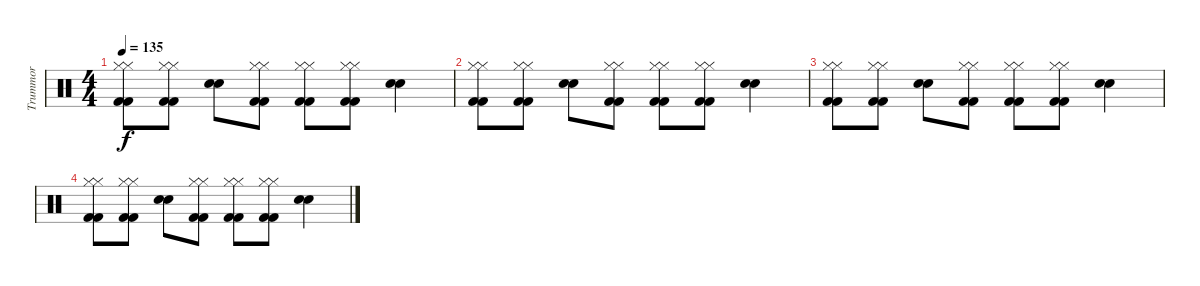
\track ("Trummor" "Trummor") {instrument percussion}
\staff {score}
\articulation defaults
\ts (4 4)
\tempo 135
\clef neutral
\ks c
("Hi-Hat (closed)" "Hi-Hat (closed)" "Kick (hit) 2" "Kick (hit) 2").8{dy f} ("Hi-Hat (closed)" "Hi-Hat (closed)" "Kick (hit) 2" "Kick (hit) 2").8 ("Snare (hit) 2" "Snare (hit) 2").8 ("Hi-Hat (closed)" "Hi-Hat (closed)" "Kick (hit) 2" "Kick (hit) 2").8 ("Hi-Hat (closed)" "Hi-Hat (closed)" "Kick (hit) 2" "Kick (hit) 2").8 ("Hi-Hat (closed)" "Hi-Hat (closed)" "Kick (hit) 2" "Kick (hit) 2").8 ("Snare (hit) 2" "Snare (hit) 2").4 |
("Hi-Hat (closed)" "Hi-Hat (closed)" "Kick (hit) 2" "Kick (hit) 2").8 ("Hi-Hat (closed)" "Hi-Hat (closed)" "Kick (hit) 2" "Kick (hit) 2").8 ("Snare (hit) 2" "Snare (hit) 2").8 ("Hi-Hat (closed)" "Hi-Hat (closed)" "Kick (hit) 2" "Kick (hit) 2").8 ("Hi-Hat (closed)" "Hi-Hat (closed)" "Kick (hit) 2" "Kick (hit) 2").8 ("Hi-Hat (closed)" "Hi-Hat (closed)" "Kick (hit) 2" "Kick (hit) 2").8 ("Snare (hit) 2" "Snare (hit) 2").4 |
("Hi-Hat (closed)" "Hi-Hat (closed)" "Kick (hit) 2" "Kick (hit) 2").8 ("Hi-Hat (closed)" "Hi-Hat (closed)" "Kick (hit) 2" "Kick (hit) 2").8 ("Snare (hit) 2" "Snare (hit) 2").8 ("Hi-Hat (closed)" "Hi-Hat (closed)" "Kick (hit) 2" "Kick (hit) 2").8 ("Hi-Hat (closed)" "Hi-Hat (closed)" "Kick (hit) 2" "Kick (hit) 2").8 ("Hi-Hat (closed)" "Hi-Hat (closed)" "Kick (hit) 2" "Kick (hit) 2").8 ("Snare (hit) 2" "Snare (hit) 2").4 |
("Hi-Hat (closed)" "Hi-Hat (closed)" "Kick (hit) 2" "Kick (hit) 2").8 ("Hi-Hat (closed)" "Hi-Hat (closed)" "Kick (hit) 2" "Kick (hit) 2").8 ("Snare (hit) 2" "Snare (hit) 2").8 ("Hi-Hat (closed)" "Hi-Hat (closed)" "Kick (hit) 2" "Kick (hit) 2").8 ("Hi-Hat (closed)" "Hi-Hat (closed)" "Kick (hit) 2" "Kick (hit) 2").8 ("Hi-Hat (closed)" "Hi-Hat (closed)" "Kick (hit) 2" "Kick (hit) 2").8 ("Snare (hit) 2" "Snare (hit) 2").4
